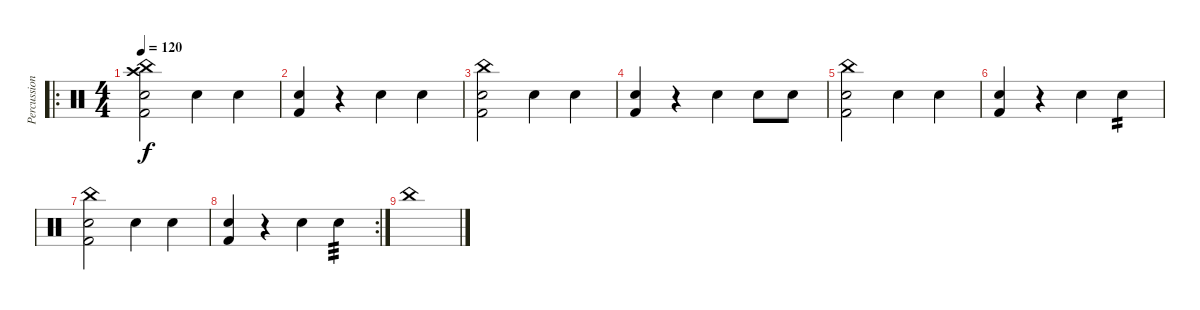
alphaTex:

\track ("Percussion" "Percussion") {instrument percussion}
\staff {score}
\articulation defaults
\ro
\ts (4 4)
\tempo 120
\clef neutral
\ks c
("Crash high (hit)" "China (hit)" "Snare (hit) 2" "Kick (hit) 2").2{dy f} "Snare (hit) 2".4 "Snare (hit) 2".4 |
("Snare (hit) 2" "Kick (hit) 2").4 r.4 "Snare (hit) 2".4 "Snare (hit) 2".4 |
("China (hit)" "Snare (hit) 2" "Kick (hit) 2").2 "Snare (hit) 2".4 "Snare (hit) 2".4 |
("Snare (hit) 2" "Kick (hit) 2").4 r.4 "Snare (hit) 2".4 "Snare (hit) 2".8 "Snare (hit) 2".8 |
("China (hit)" "Snare (hit) 2" "Kick (hit) 2").2 "Snare (hit) 2".4 "Snare (hit) 2".4 |
("Snare (hit) 2" "Kick (hit) 2").4 r.4 "Snare (hit) 2".4 "Snare (hit) 2".4{tp 2} |
("China (hit)" "Snare (hit) 2" "Kick (hit) 2").2 "Snare (hit) 2".4 "Snare (hit) 2".4 |
\rc 2
("Snare (hit) 2" "Kick (hit) 2").4 r.4 "Snare (hit) 2".4 "Snare (hit) 2".4{tp 3} |
"China (hit)".1
